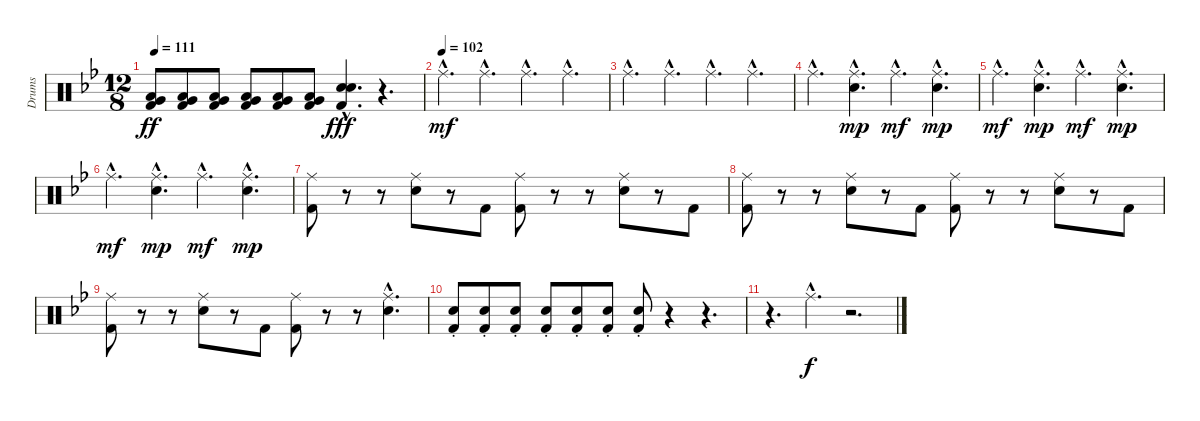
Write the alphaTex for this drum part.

\track ("Drums" "Drums") {instrument percussion}
\staff {score}
\articulation defaults
\ts (12 8)
\tempo 111
\clef neutral
\ks gminor
("Very Low Tom (hit)" "Low Floor Tom (hit)" "Kick (hit) 2").8{dy ff} ("Very Low Tom (hit)" "Low Floor Tom (hit)" "Kick (hit) 2").8 ("Very Low Tom (hit)" "Low Floor Tom (hit)" "Kick (hit) 2").8 ("Very Low Tom (hit)" "Low Floor Tom (hit)" "Kick (hit) 2").8 ("Very Low Tom (hit)" "Low Floor Tom (hit)" "Kick (hit) 2").8 ("Very Low Tom (hit)" "Low Floor Tom (hit)" "Kick (hit) 2").8 ("Electric Snare (hit)"{hac} "Snare (hit) 2"{hac} "Kick (hit) 2"{hac}).4{d dy fff} r.4{d} |
\tempo (102)
"Ride (middle)"{hac}.4{d dy mf volume 8} "Ride (middle)"{hac}.4{d} "Ride (middle)"{hac}.4{d} "Ride (middle)"{hac}.4{d} |
"Ride (middle)"{hac}.4{d} "Ride (middle)"{hac}.4{d} "Ride (middle)"{hac}.4{d} "Ride (middle)"{hac}.4{d} |
"Ride (middle)"{hac}.4{d} ("Ride (middle)"{hac} "Electric Snare (hit)"{hac}).4{d dy mp} "Ride (middle)"{hac}.4{d dy mf} ("Ride (middle)"{hac} "Electric Snare (hit)"{hac}).4{d dy mp} |
"Ride (middle)"{hac}.4{d dy mf} ("Ride (middle)"{hac} "Electric Snare (hit)"{hac}).4{d dy mp} "Ride (middle)"{hac}.4{d dy mf} ("Ride (middle)"{hac} "Electric Snare (hit)"{hac}).4{d dy mp} |
"Ride (middle)"{hac}.4{d dy mf} ("Ride (middle)"{hac} "Electric Snare (hit)"{hac}).4{d dy mp} "Ride (middle)"{hac}.4{d dy mf} ("Ride (middle)"{hac} "Electric Snare (hit)"{hac}).4{d dy mp} |
("Ride (middle)" "Kick (hit) 2").8 r.8 r.8 ("Ride (middle)" "Electric Snare (hit)").8 r.8 "Kick (hit) 2".8 ("Ride (middle)" "Kick (hit) 2").8 r.8 r.8 ("Ride (middle)" "Electric Snare (hit)").8 r.8 "Kick (hit) 2".8 |
("Ride (middle)" "Kick (hit) 2").8 r.8 r.8 ("Ride (middle)" "Electric Snare (hit)").8 r.8 "Kick (hit) 2".8 ("Ride (middle)" "Kick (hit) 2").8 r.8 r.8 ("Ride (middle)" "Electric Snare (hit)").8 r.8 "Kick (hit) 2".8 |
("Ride (middle)" "Kick (hit) 2").8 r.8 r.8 ("Ride (middle)" "Electric Snare (hit)").8 r.8 "Kick (hit) 2".8 ("Ride (middle)" "Kick (hit) 2").8 r.8 r.8 ("Ride (middle)"{hac} "Electric Snare (hit)"{hac}).4{d} |
("Electric Snare (hit)"{st} "Kick (hit) 2").8 ("Electric Snare (hit)"{st} "Kick (hit) 2").8 ("Electric Snare (hit)"{st} "Kick (hit) 2").8 ("Electric Snare (hit)"{st} "Kick (hit) 2").8 ("Electric Snare (hit)"{st} "Kick (hit) 2").8 ("Electric Snare (hit)"{st} "Kick (hit) 2").8 ("Electric Snare (hit)"{st} "Kick (hit) 2").8 r.4 r.4{d} |
r.4{d} "Ride (middle)"{hac}.4{d dy f} r.2{d}
